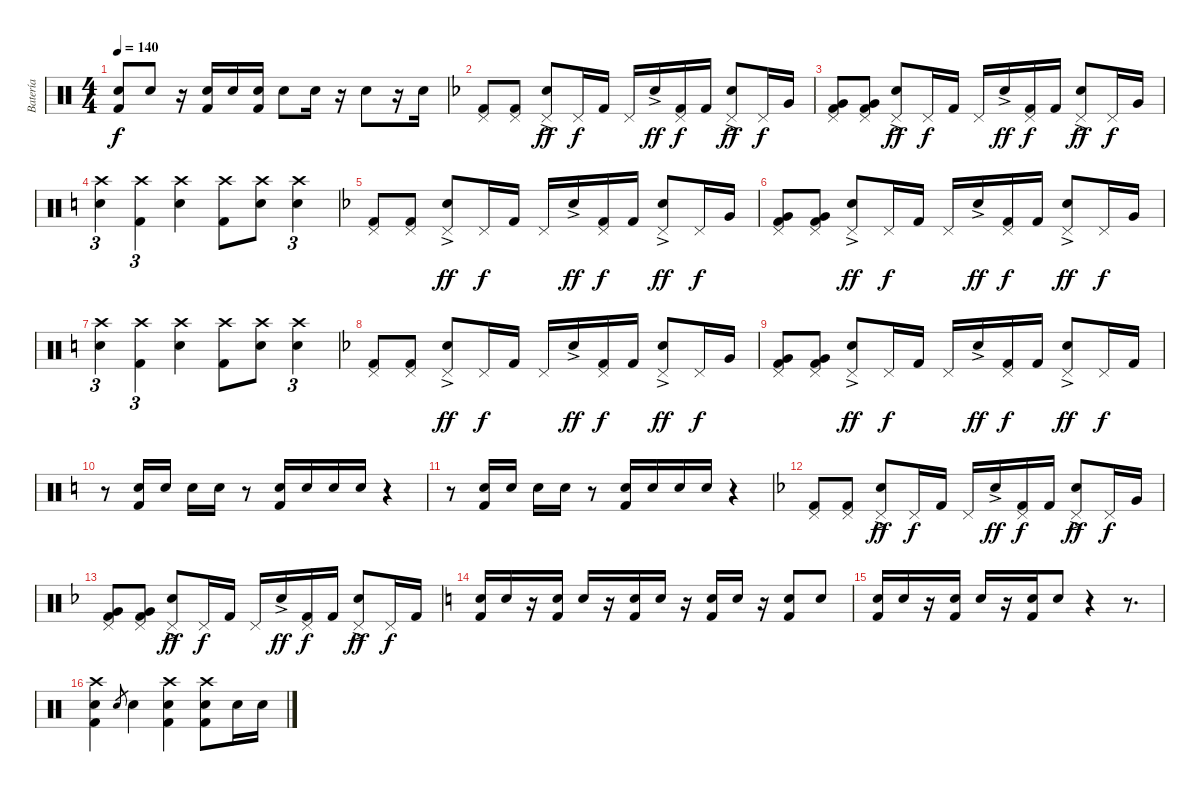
\track ("Batería" "Batería") {instrument percussion}
\staff {score}
\articulation defaults
\ts (4 4)
\tempo 140
\clef neutral
\ks c
("Snare (hit) 2" "Kick (hit) 2").8{dy f} "Snare (hit) 2".8 r.16 ("Snare (hit) 2" "Kick (hit) 2").16 "Snare (hit) 2".16 ("Snare (hit) 2" "Kick (hit) 2").16 "Snare (hit) 2".8 "Snare (hit) 2".16 r.16 "Snare (hit) 2".8 r.16 "Snare (hit) 2".16 |
\ks f
("Pedal Hi-Hat (hit)" "Kick (hit) 2").8 ("Pedal Hi-Hat (hit)" "Kick (hit) 2").8 ("Pedal Hi-Hat (hit)" "Electric Snare (hit)"{ac}).8{dy ff} "Pedal Hi-Hat (hit)".16{dy f} "Kick (hit) 2".16 "Pedal Hi-Hat (hit)".16 "Electric Snare (hit)"{ac}.16{dy ff} ("Pedal Hi-Hat (hit)" "Kick (hit) 2").16{dy f} "Kick (hit) 2".16 ("Pedal Hi-Hat (hit)" "Electric Snare (hit)"{ac}).8{dy ff} "Pedal Hi-Hat (hit)".16{dy f} "Very Low Tom (hit)".16 |
("Pedal Hi-Hat (hit)" "Very Low Tom (hit)" "Kick (hit) 2").8 ("Pedal Hi-Hat (hit)" "Very Low Tom (hit)" "Kick (hit) 2").8 ("Pedal Hi-Hat (hit)" "Electric Snare (hit)"{ac}).8{dy ff} "Pedal Hi-Hat (hit)".16{dy f} "Kick (hit) 2".16 "Pedal Hi-Hat (hit)".16 "Electric Snare (hit)"{ac}.16{dy ff} ("Pedal Hi-Hat (hit)" "Kick (hit) 2").16{dy f} "Kick (hit) 2".16 ("Pedal Hi-Hat (hit)" "Electric Snare (hit)"{ac}).8{dy ff} "Pedal Hi-Hat (hit)".16{dy f} "Very Low Tom (hit)".16 |
\ks c
("Crash high (hit)" "Snare (hit) 2").4{tu (3 2)} ("Crash high (hit)" "Kick (hit) 2").4{tu (3 2)} ("Crash high (hit)" "Snare (hit) 2").4 ("Crash high (hit)" "Kick (hit) 2").8 ("Crash high (hit)" "Snare (hit) 2").8 ("Crash high (hit)" "Snare (hit) 2").4{tu (3 2)} |
\ks f
("Pedal Hi-Hat (hit)" "Kick (hit) 2").8 ("Pedal Hi-Hat (hit)" "Kick (hit) 2").8 ("Pedal Hi-Hat (hit)" "Electric Snare (hit)"{ac}).8{dy ff} "Pedal Hi-Hat (hit)".16{dy f} "Kick (hit) 2".16 "Pedal Hi-Hat (hit)".16 "Electric Snare (hit)"{ac}.16{dy ff} ("Pedal Hi-Hat (hit)" "Kick (hit) 2").16{dy f} "Kick (hit) 2".16 ("Pedal Hi-Hat (hit)" "Electric Snare (hit)"{ac}).8{dy ff} "Pedal Hi-Hat (hit)".16{dy f} "Very Low Tom (hit)".16 |
("Pedal Hi-Hat (hit)" "Very Low Tom (hit)" "Kick (hit) 2").8 ("Pedal Hi-Hat (hit)" "Very Low Tom (hit)" "Kick (hit) 2").8 ("Pedal Hi-Hat (hit)" "Electric Snare (hit)"{ac}).8{dy ff} "Pedal Hi-Hat (hit)".16{dy f} "Kick (hit) 2".16 "Pedal Hi-Hat (hit)".16 "Electric Snare (hit)"{ac}.16{dy ff} ("Pedal Hi-Hat (hit)" "Kick (hit) 2").16{dy f} "Kick (hit) 2".16 ("Pedal Hi-Hat (hit)" "Electric Snare (hit)"{ac}).8{dy ff} "Pedal Hi-Hat (hit)".16{dy f} "Very Low Tom (hit)".16 |
\ks c
("Crash high (hit)" "Snare (hit) 2").4{tu (3 2)} ("Crash high (hit)" "Kick (hit) 2").4{tu (3 2)} ("Crash high (hit)" "Snare (hit) 2").4 ("Crash high (hit)" "Kick (hit) 2").8 ("Crash high (hit)" "Snare (hit) 2").8 ("Crash high (hit)" "Snare (hit) 2").4{tu (3 2)} |
\ks f
("Pedal Hi-Hat (hit)" "Kick (hit) 2").8 ("Pedal Hi-Hat (hit)" "Kick (hit) 2").8 ("Pedal Hi-Hat (hit)" "Electric Snare (hit)"{ac}).8{dy ff} "Pedal Hi-Hat (hit)".16{dy f} "Kick (hit) 2".16 "Pedal Hi-Hat (hit)".16 "Electric Snare (hit)"{ac}.16{dy ff} ("Pedal Hi-Hat (hit)" "Kick (hit) 2").16{dy f} "Kick (hit) 2".16 ("Pedal Hi-Hat (hit)" "Electric Snare (hit)"{ac}).8{dy ff} "Pedal Hi-Hat (hit)".16{dy f} "Very Low Tom (hit)".16 |
("Pedal Hi-Hat (hit)" "Very Low Tom (hit)" "Kick (hit) 2").8 ("Pedal Hi-Hat (hit)" "Very Low Tom (hit)" "Kick (hit) 2").8 ("Pedal Hi-Hat (hit)" "Electric Snare (hit)"{ac}).8{dy ff} "Pedal Hi-Hat (hit)".16{dy f} "Kick (hit) 2".16 "Pedal Hi-Hat (hit)".16 "Electric Snare (hit)"{ac}.16{dy ff} ("Pedal Hi-Hat (hit)" "Kick (hit) 2").16{dy f} "Kick (hit) 2".16 ("Pedal Hi-Hat (hit)" "Electric Snare (hit)"{ac}).8{dy ff} "Pedal Hi-Hat (hit)".16{dy f} "Kick (hit) 2".16 |
\ks c
r.8 ("Snare (hit) 2" "Kick (hit) 2").16 "Snare (hit) 2".16 "Snare (hit) 2".16 "Snare (hit) 2".16 r.8 ("Snare (hit) 2" "Kick (hit) 2").16 "Snare (hit) 2".16 "Snare (hit) 2".16 "Snare (hit) 2".16 r.4 |
r.8 ("Snare (hit) 2" "Kick (hit) 2").16 "Snare (hit) 2".16 "Snare (hit) 2".16 "Snare (hit) 2".16 r.8 ("Snare (hit) 2" "Kick (hit) 2").16 "Snare (hit) 2".16 "Snare (hit) 2".16 "Snare (hit) 2".16 r.4 |
\ks f
("Pedal Hi-Hat (hit)" "Kick (hit) 2").8 ("Pedal Hi-Hat (hit)" "Kick (hit) 2").8 ("Pedal Hi-Hat (hit)" "Electric Snare (hit)"{ac}).8{dy ff} "Pedal Hi-Hat (hit)".16{dy f} "Kick (hit) 2".16 "Pedal Hi-Hat (hit)".16 "Electric Snare (hit)"{ac}.16{dy ff} ("Pedal Hi-Hat (hit)" "Kick (hit) 2").16{dy f} "Kick (hit) 2".16 ("Pedal Hi-Hat (hit)" "Electric Snare (hit)"{ac}).8{dy ff} "Pedal Hi-Hat (hit)".16{dy f} "Very Low Tom (hit)".16 |
("Pedal Hi-Hat (hit)" "Very Low Tom (hit)" "Kick (hit) 2").8 ("Pedal Hi-Hat (hit)" "Very Low Tom (hit)" "Kick (hit) 2").8 ("Pedal Hi-Hat (hit)" "Electric Snare (hit)"{ac}).8{dy ff} "Pedal Hi-Hat (hit)".16{dy f} "Kick (hit) 2".16 "Pedal Hi-Hat (hit)".16 "Electric Snare (hit)"{ac}.16{dy ff} ("Pedal Hi-Hat (hit)" "Kick (hit) 2").16{dy f} "Kick (hit) 2".16 ("Pedal Hi-Hat (hit)" "Electric Snare (hit)"{ac}).8{dy ff} "Pedal Hi-Hat (hit)".16{dy f} "Kick (hit) 2".16 |
\ks c
("Snare (hit) 2" "Kick (hit) 2").16 "Snare (hit) 2".16 r.16 ("Snare (hit) 2" "Kick (hit) 2").16 "Snare (hit) 2".16 r.16 ("Snare (hit) 2" "Kick (hit) 2").16 "Snare (hit) 2".16 r.16 ("Snare (hit) 2" "Kick (hit) 2").16 "Snare (hit) 2".16 r.16 ("Snare (hit) 2" "Kick (hit) 2").8 "Snare (hit) 2".8 |
("Snare (hit) 2" "Kick (hit) 2").16 "Snare (hit) 2".16 r.16 ("Snare (hit) 2" "Kick (hit) 2").16 "Snare (hit) 2".16 r.16 ("Snare (hit) 2" "Kick (hit) 2").16 "Snare (hit) 2".8 r.4 r.8{d} |
("Crash high (hit)" "Snare (hit) 2" "Kick (hit) 2").4 "Snare (hit) 2".8{gr} "Snare (hit) 2".4 ("Crash high (hit)" "Snare (hit) 2" "Kick (hit) 2").4 ("Crash high (hit)" "Snare (hit) 2" "Kick (hit) 2").8 "Snare (hit) 2".16 "Snare (hit) 2".16
